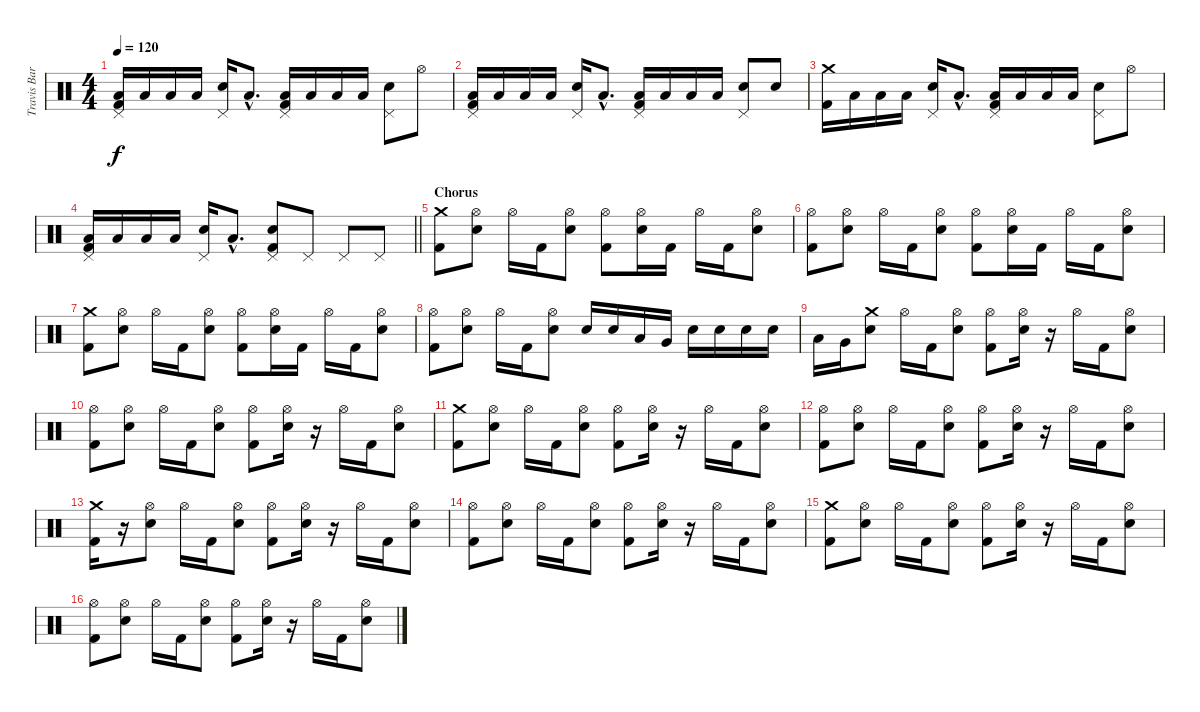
\track ("Travis Barker" "Travis Bar") {instrument percussion}
\staff {score}
\articulation defaults
\ts (4 4)
\tempo 120
\clef neutral
\ks c
("Pedal Hi-Hat (hit)" "Low Floor Tom (hit)" "Kick (hit) 2").16{dy f} "Low Floor Tom (hit)".16 "Low Floor Tom (hit)".16 "Low Floor Tom (hit)".16 ("Pedal Hi-Hat (hit)" "Electric Snare (hit)").16 "Low Floor Tom (hit)"{hac}.8{d} ("Pedal Hi-Hat (hit)" "Low Floor Tom (hit)" "Kick (hit) 2").16 "Low Floor Tom (hit)".16 "Low Floor Tom (hit)".16 "Low Floor Tom (hit)".16 ("Pedal Hi-Hat (hit)" "Electric Snare (hit)").8 "Hi-Hat (open)".8 |
("Pedal Hi-Hat (hit)" "Low Floor Tom (hit)" "Kick (hit) 2").16 "Low Floor Tom (hit)".16 "Low Floor Tom (hit)".16 "Low Floor Tom (hit)".16 ("Pedal Hi-Hat (hit)" "Electric Snare (hit)").16 "Low Floor Tom (hit)"{hac}.8{d} ("Pedal Hi-Hat (hit)" "Low Floor Tom (hit)" "Kick (hit) 2").16 "Low Floor Tom (hit)".16 "Low Floor Tom (hit)".16 "Low Floor Tom (hit)".16 ("Pedal Hi-Hat (hit)" "Electric Snare (hit)").8 "Electric Snare (hit)".8 |
("Crash medium (hit)" "Kick (hit) 2").16 "Low Floor Tom (hit)".16 "Low Floor Tom (hit)".16 "Low Floor Tom (hit)".16 ("Pedal Hi-Hat (hit)" "Electric Snare (hit)").16 "Low Floor Tom (hit)"{hac}.8{d} ("Pedal Hi-Hat (hit)" "Low Floor Tom (hit)" "Kick (hit) 2").16 "Low Floor Tom (hit)".16 "Low Floor Tom (hit)".16 "Low Floor Tom (hit)".16 ("Pedal Hi-Hat (hit)" "Electric Snare (hit)").8 "Hi-Hat (open)".8 |
\barLineRight lightlight
("Pedal Hi-Hat (hit)" "Low Floor Tom (hit)" "Kick (hit) 2").16 "Low Floor Tom (hit)".16 "Low Floor Tom (hit)".16 "Low Floor Tom (hit)".16 ("Pedal Hi-Hat (hit)" "Electric Snare (hit)").16 "Low Floor Tom (hit)"{hac}.8{d} ("Pedal Hi-Hat (hit)" "Electric Snare (hit)" "Kick (hit) 2").8 "Pedal Hi-Hat (hit)".8 "Pedal Hi-Hat (hit)".8 "Pedal Hi-Hat (hit)".8 |
\section ("" "Chorus")
("Crash medium (hit)" "Kick (hit) 2").8 ("Hi-Hat (open)" "Electric Snare (hit)").8 "Hi-Hat (open)".16 "Kick (hit) 2".16 ("Hi-Hat (open)" "Electric Snare (hit)").8 ("Hi-Hat (open)" "Kick (hit) 2").8 ("Hi-Hat (open)" "Electric Snare (hit)").16 "Kick (hit) 2".16 "Hi-Hat (open)".16 "Kick (hit) 2".16 ("Hi-Hat (open)" "Electric Snare (hit)").8 |
("Hi-Hat (open)" "Kick (hit) 2").8 ("Hi-Hat (open)" "Electric Snare (hit)").8 "Hi-Hat (open)".16 "Kick (hit) 2".16 ("Hi-Hat (open)" "Electric Snare (hit)").8 ("Hi-Hat (open)" "Kick (hit) 2").8 ("Hi-Hat (open)" "Electric Snare (hit)").16 "Kick (hit) 2".16 "Hi-Hat (open)".16 "Kick (hit) 2".16 ("Hi-Hat (open)" "Electric Snare (hit)").8 |
("Crash medium (hit)" "Kick (hit) 2").8 ("Hi-Hat (open)" "Electric Snare (hit)").8 "Hi-Hat (open)".16 "Kick (hit) 2".16 ("Hi-Hat (open)" "Electric Snare (hit)").8 ("Hi-Hat (open)" "Kick (hit) 2").8 ("Hi-Hat (open)" "Electric Snare (hit)").16 "Kick (hit) 2".16 "Hi-Hat (open)".16 "Kick (hit) 2".16 ("Hi-Hat (open)" "Electric Snare (hit)").8 |
("Hi-Hat (open)" "Kick (hit) 2").8 ("Hi-Hat (open)" "Electric Snare (hit)").8 "Hi-Hat (open)".16 "Kick (hit) 2".16 ("Hi-Hat (open)" "Electric Snare (hit)").8 "Electric Snare (hit)".16 "Electric Snare (hit)".16 "Low Tom (hit)".16 "Very Low Tom (hit)".16 "Electric Snare (hit)".16 "Electric Snare (hit)".16 "Electric Snare (hit)".16 "Electric Snare (hit)".16 |
"Low Tom (hit)".16 "Very Low Tom (hit)".16 ("Crash medium (hit)" "Electric Snare (hit)").8 "Hi-Hat (open)".16 "Kick (hit) 2".16 ("Hi-Hat (open)" "Electric Snare (hit)").8 ("Hi-Hat (open)" "Kick (hit) 2").8 ("Hi-Hat (open)" "Electric Snare (hit)").16 r.16 "Hi-Hat (open)".16 "Kick (hit) 2".16 ("Hi-Hat (open)" "Electric Snare (hit)").8 |
("Hi-Hat (open)" "Kick (hit) 2").8 ("Hi-Hat (open)" "Electric Snare (hit)").8 "Hi-Hat (open)".16 "Kick (hit) 2".16 ("Hi-Hat (open)" "Electric Snare (hit)").8 ("Hi-Hat (open)" "Kick (hit) 2").8 ("Hi-Hat (open)" "Electric Snare (hit)").16 r.16 "Hi-Hat (open)".16 "Kick (hit) 2".16 ("Hi-Hat (open)" "Electric Snare (hit)").8 |
("Crash medium (hit)" "Kick (hit) 2").8 ("Hi-Hat (open)" "Electric Snare (hit)").8 "Hi-Hat (open)".16 "Kick (hit) 2".16 ("Hi-Hat (open)" "Electric Snare (hit)").8 ("Hi-Hat (open)" "Kick (hit) 2").8 ("Hi-Hat (open)" "Electric Snare (hit)").16 r.16 "Hi-Hat (open)".16 "Kick (hit) 2".16 ("Hi-Hat (open)" "Electric Snare (hit)").8 |
("Hi-Hat (open)" "Kick (hit) 2").8 ("Hi-Hat (open)" "Electric Snare (hit)").8 "Hi-Hat (open)".16 "Kick (hit) 2".16 ("Hi-Hat (open)" "Electric Snare (hit)").8 ("Hi-Hat (open)" "Kick (hit) 2").8 ("Hi-Hat (open)" "Electric Snare (hit)").16 r.16 "Hi-Hat (open)".16 "Kick (hit) 2".16 ("Hi-Hat (open)" "Electric Snare (hit)").8 |
("Crash medium (hit)" "Kick (hit) 2").16 r.16 ("Hi-Hat (open)" "Electric Snare (hit)").8 "Hi-Hat (open)".16 "Kick (hit) 2".16 ("Hi-Hat (open)" "Electric Snare (hit)").8 ("Hi-Hat (open)" "Kick (hit) 2").8 ("Hi-Hat (open)" "Electric Snare (hit)").16 r.16 "Hi-Hat (open)".16 "Kick (hit) 2".16 ("Hi-Hat (open)" "Electric Snare (hit)").8 |
("Hi-Hat (open)" "Kick (hit) 2").8 ("Hi-Hat (open)" "Electric Snare (hit)").8 "Hi-Hat (open)".16 "Kick (hit) 2".16 ("Hi-Hat (open)" "Electric Snare (hit)").8 ("Hi-Hat (open)" "Kick (hit) 2").8 ("Hi-Hat (open)" "Electric Snare (hit)").16 r.16 "Hi-Hat (open)".16 "Kick (hit) 2".16 ("Hi-Hat (open)" "Electric Snare (hit)").8 |
("Crash medium (hit)" "Kick (hit) 2").8 ("Hi-Hat (open)" "Electric Snare (hit)").8 "Hi-Hat (open)".16 "Kick (hit) 2".16 ("Hi-Hat (open)" "Electric Snare (hit)").8 ("Hi-Hat (open)" "Kick (hit) 2").8 ("Hi-Hat (open)" "Electric Snare (hit)").16 r.16 "Hi-Hat (open)".16 "Kick (hit) 2".16 ("Hi-Hat (open)" "Electric Snare (hit)").8 |
("Hi-Hat (open)" "Kick (hit) 2").8 ("Hi-Hat (open)" "Electric Snare (hit)").8 "Hi-Hat (open)".16 "Kick (hit) 2".16 ("Hi-Hat (open)" "Electric Snare (hit)").8 ("Hi-Hat (open)" "Kick (hit) 2").8 ("Hi-Hat (open)" "Electric Snare (hit)").16 r.16 "Hi-Hat (open)".16 "Kick (hit) 2".16 ("Hi-Hat (open)" "Electric Snare (hit)").8
